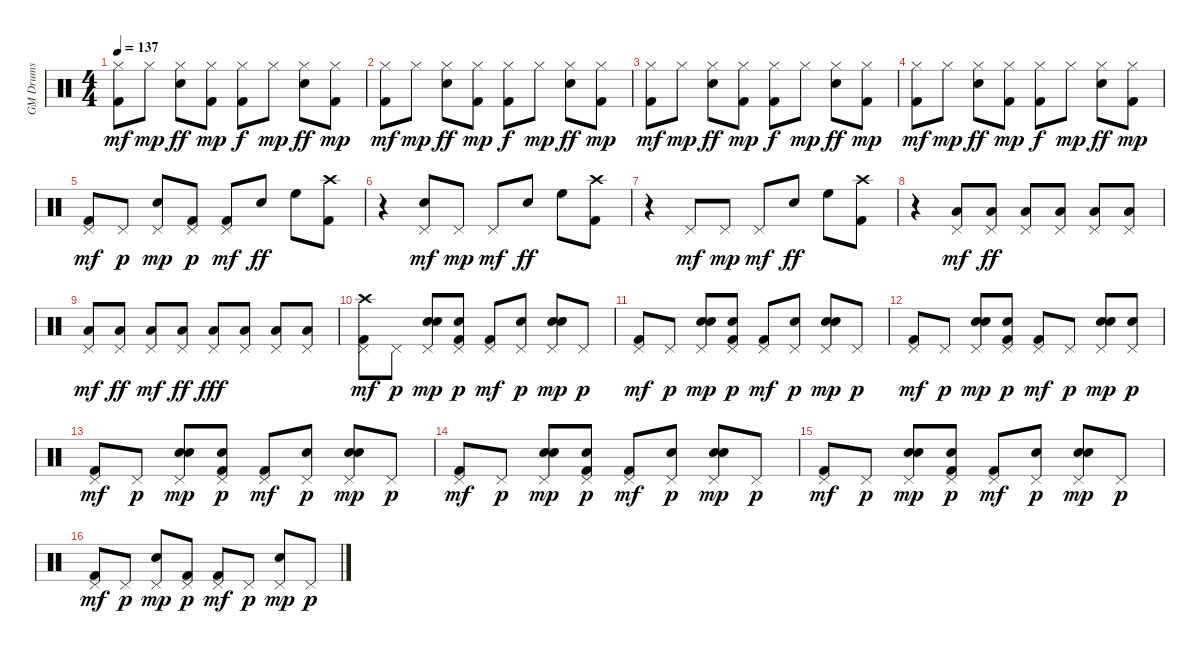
\track ("GM Drums            " "GM Drums  ") {instrument percussion}
\staff {score}
\articulation defaults
\ts (4 4)
\tempo 137
\clef neutral
\ks c
("Kick (hit) 2" "Hi-Hat (closed)").8{dy mf} "Hi-Hat (closed)".8{dy mp} ("Snare (hit) 2" "Hi-Hat (closed)").8{dy ff} ("Hi-Hat (closed)" "Kick (hit) 2").8{dy mp} ("Kick (hit) 2" "Hi-Hat (closed)").8{dy f} "Hi-Hat (closed)".8{dy mp} ("Snare (hit) 2" "Hi-Hat (closed)").8{dy ff} ("Kick (hit) 2" "Hi-Hat (closed)").8{dy mp} |
("Kick (hit) 2" "Hi-Hat (closed)").8{dy mf} "Hi-Hat (closed)".8{dy mp} ("Snare (hit) 2" "Hi-Hat (closed)").8{dy ff} ("Hi-Hat (closed)" "Kick (hit) 2").8{dy mp} ("Kick (hit) 2" "Hi-Hat (closed)").8{dy f} "Hi-Hat (closed)".8{dy mp} ("Snare (hit) 2" "Hi-Hat (closed)").8{dy ff} ("Kick (hit) 2" "Hi-Hat (closed)").8{dy mp} |
("Kick (hit) 2" "Hi-Hat (closed)").8{dy mf} "Hi-Hat (closed)".8{dy mp} ("Snare (hit) 2" "Hi-Hat (closed)").8{dy ff} ("Hi-Hat (closed)" "Kick (hit) 2").8{dy mp} ("Kick (hit) 2" "Hi-Hat (closed)").8{dy f} "Hi-Hat (closed)".8{dy mp} ("Snare (hit) 2" "Hi-Hat (closed)").8{dy ff} ("Kick (hit) 2" "Hi-Hat (closed)").8{dy mp} |
("Kick (hit) 2" "Hi-Hat (closed)").8{dy mf} "Hi-Hat (closed)".8{dy mp} ("Snare (hit) 2" "Hi-Hat (closed)").8{dy ff} ("Hi-Hat (closed)" "Kick (hit) 2").8{dy mp} ("Kick (hit) 2" "Hi-Hat (closed)").8{dy f} "Hi-Hat (closed)".8{dy mp} ("Snare (hit) 2" "Hi-Hat (closed)").8{dy ff} ("Kick (hit) 2" "Hi-Hat (closed)").8{dy mp} |
("Pedal Hi-Hat (hit)" "Kick (hit) 2").8{dy mf} "Pedal Hi-Hat (hit)".8{dy p} ("Snare (hit) 2" "Pedal Hi-Hat (hit)").8{dy mp} ("Pedal Hi-Hat (hit)" "Kick (hit) 2").8{dy p} ("Kick (hit) 2" "Pedal Hi-Hat (hit)").8{dy mf} "Snare (hit) 2".8{dy ff} "High Floor Tom (hit)".8 ("Crash high (hit)" "Kick (hit) 2").8 |
r.4 ("Snare (hit) 2" "Pedal Hi-Hat (hit)").8{dy mf} "Pedal Hi-Hat (hit)".8{dy mp} "Pedal Hi-Hat (hit)".8{dy mf} "Snare (hit) 2".8{dy ff} "High Floor Tom (hit)".8 ("Crash high (hit)" "Kick (hit) 2").8 |
r.4 "Pedal Hi-Hat (hit)".8{dy mf} "Pedal Hi-Hat (hit)".8{dy mp} "Pedal Hi-Hat (hit)".8{dy mf} "Snare (hit) 2".8{dy ff} "High Floor Tom (hit)".8 ("Crash high (hit)" "Kick (hit) 2").8 |
r.4 ("Low Floor Tom (hit)" "Pedal Hi-Hat (hit)").8{dy mf} ("Pedal Hi-Hat (hit)" "Low Floor Tom (hit)").8{dy ff} ("Pedal Hi-Hat (hit)" "Low Floor Tom (hit)").8 ("Pedal Hi-Hat (hit)" "Low Floor Tom (hit)").8 ("Pedal Hi-Hat (hit)" "Low Floor Tom (hit)").8 ("Pedal Hi-Hat (hit)" "Low Floor Tom (hit)").8 |
("Low Floor Tom (hit)" "Pedal Hi-Hat (hit)").8{dy mf} ("Pedal Hi-Hat (hit)" "Low Floor Tom (hit)").8{dy ff} ("Low Floor Tom (hit)" "Pedal Hi-Hat (hit)").8{dy mf} ("Pedal Hi-Hat (hit)" "Low Floor Tom (hit)").8{dy ff} ("Pedal Hi-Hat (hit)" "Low Floor Tom (hit)").8{dy fff} ("Pedal Hi-Hat (hit)" "Low Floor Tom (hit)").8 ("Pedal Hi-Hat (hit)" "Low Floor Tom (hit)").8 ("Pedal Hi-Hat (hit)" "Low Floor Tom (hit)").8 |
("Crash high (hit)" "Kick (hit) 2" "Pedal Hi-Hat (hit)").8{dy mf} "Pedal Hi-Hat (hit)".8{dy p} ("Hand Clap (hit)" "Snare (hit) 2" "Pedal Hi-Hat (hit)").8{dy mp} ("Hand Clap (hit)" "Pedal Hi-Hat (hit)" "Kick (hit) 2").8{dy p} ("Kick (hit) 2" "Pedal Hi-Hat (hit)").8{dy mf} ("Hand Clap (hit)" "Pedal Hi-Hat (hit)").8{dy p} ("Hand Clap (hit)" "Snare (hit) 2" "Pedal Hi-Hat (hit)").8{dy mp} "Pedal Hi-Hat (hit)".8{dy p} |
("Kick (hit) 2" "Pedal Hi-Hat (hit)").8{dy mf} "Pedal Hi-Hat (hit)".8{dy p} ("Hand Clap (hit)" "Snare (hit) 2" "Pedal Hi-Hat (hit)").8{dy mp} ("Hand Clap (hit)" "Pedal Hi-Hat (hit)" "Kick (hit) 2").8{dy p} ("Kick (hit) 2" "Pedal Hi-Hat (hit)").8{dy mf} ("Hand Clap (hit)" "Pedal Hi-Hat (hit)").8{dy p} ("Hand Clap (hit)" "Snare (hit) 2" "Pedal Hi-Hat (hit)").8{dy mp} "Pedal Hi-Hat (hit)".8{dy p} |
("Kick (hit) 2" "Pedal Hi-Hat (hit)").8{dy mf} "Pedal Hi-Hat (hit)".8{dy p} ("Hand Clap (hit)" "Snare (hit) 2" "Pedal Hi-Hat (hit)").8{dy mp} ("Hand Clap (hit)" "Pedal Hi-Hat (hit)" "Kick (hit) 2").8{dy p} ("Kick (hit) 2" "Pedal Hi-Hat (hit)").8{dy mf} "Pedal Hi-Hat (hit)".8{dy p} ("Hand Clap (hit)" "Snare (hit) 2" "Pedal Hi-Hat (hit)").8{dy mp} ("Hand Clap (hit)" "Pedal Hi-Hat (hit)").8{dy p} |
("Kick (hit) 2" "Pedal Hi-Hat (hit)").8{dy mf} "Pedal Hi-Hat (hit)".8{dy p} ("Hand Clap (hit)" "Snare (hit) 2" "Pedal Hi-Hat (hit)").8{dy mp} ("Hand Clap (hit)" "Pedal Hi-Hat (hit)" "Kick (hit) 2").8{dy p} ("Kick (hit) 2" "Pedal Hi-Hat (hit)").8{dy mf} ("Hand Clap (hit)" "Pedal Hi-Hat (hit)").8{dy p} ("Hand Clap (hit)" "Snare (hit) 2" "Pedal Hi-Hat (hit)").8{dy mp} "Pedal Hi-Hat (hit)".8{dy p} |
("Kick (hit) 2" "Pedal Hi-Hat (hit)").8{dy mf} "Pedal Hi-Hat (hit)".8{dy p} ("Hand Clap (hit)" "Snare (hit) 2" "Pedal Hi-Hat (hit)").8{dy mp} ("Hand Clap (hit)" "Pedal Hi-Hat (hit)" "Kick (hit) 2").8{dy p} ("Kick (hit) 2" "Pedal Hi-Hat (hit)").8{dy mf} ("Hand Clap (hit)" "Pedal Hi-Hat (hit)").8{dy p} ("Hand Clap (hit)" "Snare (hit) 2" "Pedal Hi-Hat (hit)").8{dy mp} "Pedal Hi-Hat (hit)".8{dy p} |
("Kick (hit) 2" "Pedal Hi-Hat (hit)").8{dy mf} "Pedal Hi-Hat (hit)".8{dy p} ("Hand Clap (hit)" "Snare (hit) 2" "Pedal Hi-Hat (hit)").8{dy mp} ("Hand Clap (hit)" "Pedal Hi-Hat (hit)" "Kick (hit) 2").8{dy p} ("Kick (hit) 2" "Pedal Hi-Hat (hit)").8{dy mf} ("Hand Clap (hit)" "Pedal Hi-Hat (hit)").8{dy p} ("Hand Clap (hit)" "Snare (hit) 2" "Pedal Hi-Hat (hit)").8{dy mp} "Pedal Hi-Hat (hit)".8{dy p} |
("Kick (hit) 2" "Pedal Hi-Hat (hit)").8{dy mf} "Pedal Hi-Hat (hit)".8{dy p} ("Snare (hit) 2" "Pedal Hi-Hat (hit)").8{dy mp} ("Pedal Hi-Hat (hit)" "Kick (hit) 2").8{dy p} ("Kick (hit) 2" "Pedal Hi-Hat (hit)").8{dy mf} "Pedal Hi-Hat (hit)".8{dy p} ("Snare (hit) 2" "Pedal Hi-Hat (hit)").8{dy mp} "Pedal Hi-Hat (hit)".8{dy p}
